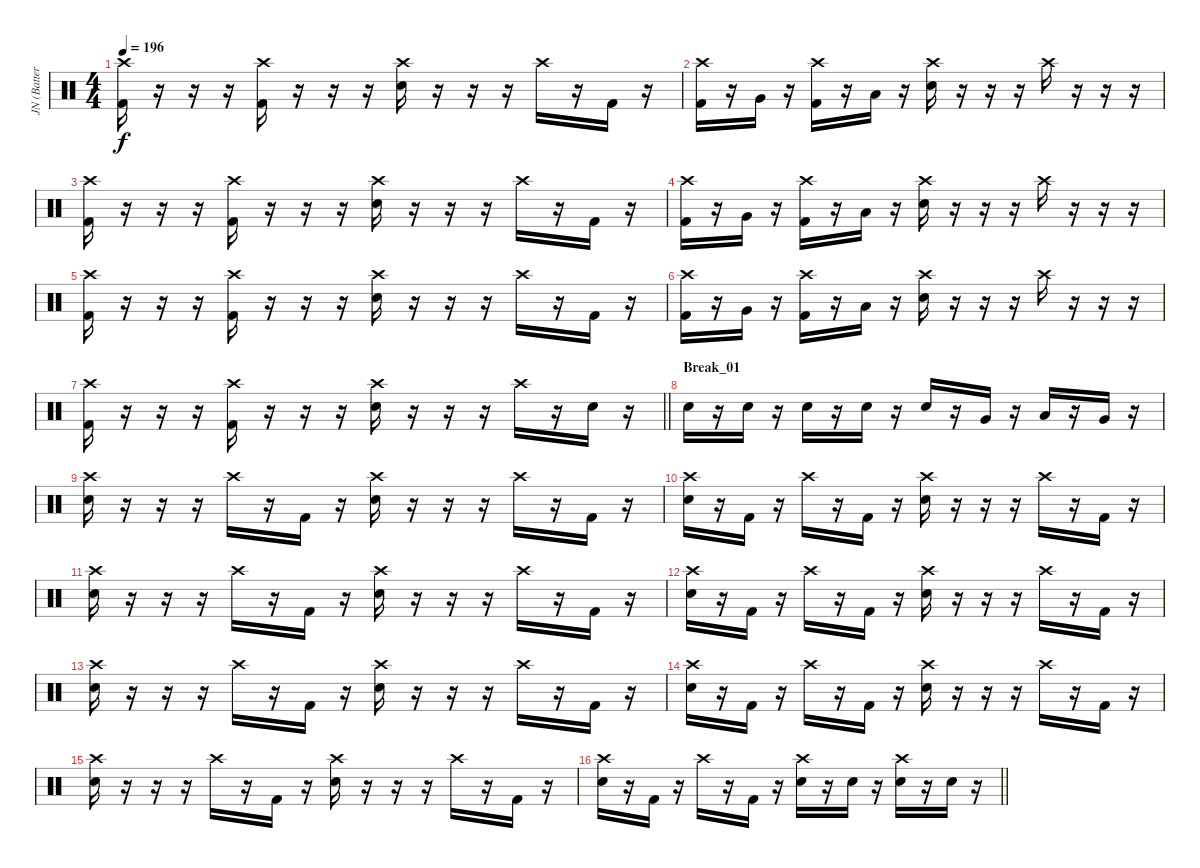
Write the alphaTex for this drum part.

\track ("JN (Batterie)" "JN (Batter") {instrument percussion}
\staff {score}
\articulation defaults
\ts (4 4)
\tempo 196
\clef neutral
\ks c
("Crash high (hit)" "Kick (hit) 2").16{dy f} r.16 r.16 r.16 ("Crash high (hit)" "Kick (hit) 2").16 r.16 r.16 r.16 ("Crash high (hit)" "Electric Snare (hit)").16 r.16 r.16 r.16 "Crash high (hit)".16 r.16 "Kick (hit) 2".16 r.16 |
("Crash high (hit)" "Kick (hit) 2").16 r.16 "Very Low Tom (hit)".16 r.16 ("Crash high (hit)" "Kick (hit) 2").16 r.16 "Low Tom (hit)".16 r.16 ("Crash high (hit)" "Electric Snare (hit)").16 r.16 r.16 r.16 "Crash high (hit)".16 r.16 r.16 r.16 |
("Crash high (hit)" "Kick (hit) 2").16 r.16 r.16 r.16 ("Crash high (hit)" "Kick (hit) 2").16 r.16 r.16 r.16 ("Crash high (hit)" "Electric Snare (hit)").16 r.16 r.16 r.16 "Crash high (hit)".16 r.16 "Kick (hit) 2".16 r.16 |
("Crash high (hit)" "Kick (hit) 2").16 r.16 "Very Low Tom (hit)".16 r.16 ("Crash high (hit)" "Kick (hit) 2").16 r.16 "Low Tom (hit)".16 r.16 ("Crash high (hit)" "Electric Snare (hit)").16 r.16 r.16 r.16 "Crash high (hit)".16 r.16 r.16 r.16 |
("Crash high (hit)" "Kick (hit) 2").16 r.16 r.16 r.16 ("Crash high (hit)" "Kick (hit) 2").16 r.16 r.16 r.16 ("Crash high (hit)" "Electric Snare (hit)").16 r.16 r.16 r.16 "Crash high (hit)".16 r.16 "Kick (hit) 2".16 r.16 |
("Crash high (hit)" "Kick (hit) 2").16 r.16 "Very Low Tom (hit)".16 r.16 ("Crash high (hit)" "Kick (hit) 2").16 r.16 "Low Tom (hit)".16 r.16 ("Crash high (hit)" "Electric Snare (hit)").16 r.16 r.16 r.16 "Crash high (hit)".16 r.16 r.16 r.16 |
\barLineRight lightlight
("Crash high (hit)" "Kick (hit) 2").16 r.16 r.16 r.16 ("Crash high (hit)" "Kick (hit) 2").16 r.16 r.16 r.16 ("Crash high (hit)" "Electric Snare (hit)").16 r.16 r.16 r.16 "Crash high (hit)".16 r.16 "Electric Snare (hit)".16 r.16 |
\section ("" "Break_01")
"Electric Snare (hit)".16 r.16 "Electric Snare (hit)".16 r.16 "Electric Snare (hit)".16 r.16 "Electric Snare (hit)".16 r.16 "Electric Snare (hit)".16 r.16 "Very Low Tom (hit)".16 r.16 "Low Tom (hit)".16 r.16 "Very Low Tom (hit)".16 r.16 |
("Crash high (hit)" "Electric Snare (hit)").16 r.16 r.16 r.16 "Crash high (hit)".16 r.16 "Kick (hit) 2".16 r.16 ("Crash high (hit)" "Electric Snare (hit)").16 r.16 r.16 r.16 "Crash high (hit)".16 r.16 "Kick (hit) 2".16 r.16 |
("Crash high (hit)" "Electric Snare (hit)").16 r.16 "Kick (hit) 2".16 r.16 "Crash high (hit)".16 r.16 "Kick (hit) 2".16 r.16 ("Crash high (hit)" "Electric Snare (hit)").16 r.16 r.16 r.16 "Crash high (hit)".16 r.16 "Kick (hit) 2".16 r.16 |
("Crash high (hit)" "Electric Snare (hit)").16 r.16 r.16 r.16 "Crash high (hit)".16 r.16 "Kick (hit) 2".16 r.16 ("Crash high (hit)" "Electric Snare (hit)").16 r.16 r.16 r.16 "Crash high (hit)".16 r.16 "Kick (hit) 2".16 r.16 |
("Crash high (hit)" "Electric Snare (hit)").16 r.16 "Kick (hit) 2".16 r.16 "Crash high (hit)".16 r.16 "Kick (hit) 2".16 r.16 ("Crash high (hit)" "Electric Snare (hit)").16 r.16 r.16 r.16 "Crash high (hit)".16 r.16 "Kick (hit) 2".16 r.16 |
("Crash high (hit)" "Electric Snare (hit)").16 r.16 r.16 r.16 "Crash high (hit)".16 r.16 "Kick (hit) 2".16 r.16 ("Crash high (hit)" "Electric Snare (hit)").16 r.16 r.16 r.16 "Crash high (hit)".16 r.16 "Kick (hit) 2".16 r.16 |
("Crash high (hit)" "Electric Snare (hit)").16 r.16 "Kick (hit) 2".16 r.16 "Crash high (hit)".16 r.16 "Kick (hit) 2".16 r.16 ("Crash high (hit)" "Electric Snare (hit)").16 r.16 r.16 r.16 "Crash high (hit)".16 r.16 "Kick (hit) 2".16 r.16 |
("Crash high (hit)" "Electric Snare (hit)").16 r.16 r.16 r.16 "Crash high (hit)".16 r.16 "Kick (hit) 2".16 r.16 ("Crash high (hit)" "Electric Snare (hit)").16 r.16 r.16 r.16 "Crash high (hit)".16 r.16 "Kick (hit) 2".16 r.16 |
\barLineRight lightlight
("Crash high (hit)" "Electric Snare (hit)").16 r.16 "Kick (hit) 2".16 r.16 "Crash high (hit)".16 r.16 "Kick (hit) 2".16 r.16 ("Crash high (hit)" "Electric Snare (hit)").16 r.16 "Electric Snare (hit)".16 r.16 ("Crash high (hit)" "Electric Snare (hit)").16 r.16 "Electric Snare (hit)".16 r.16
